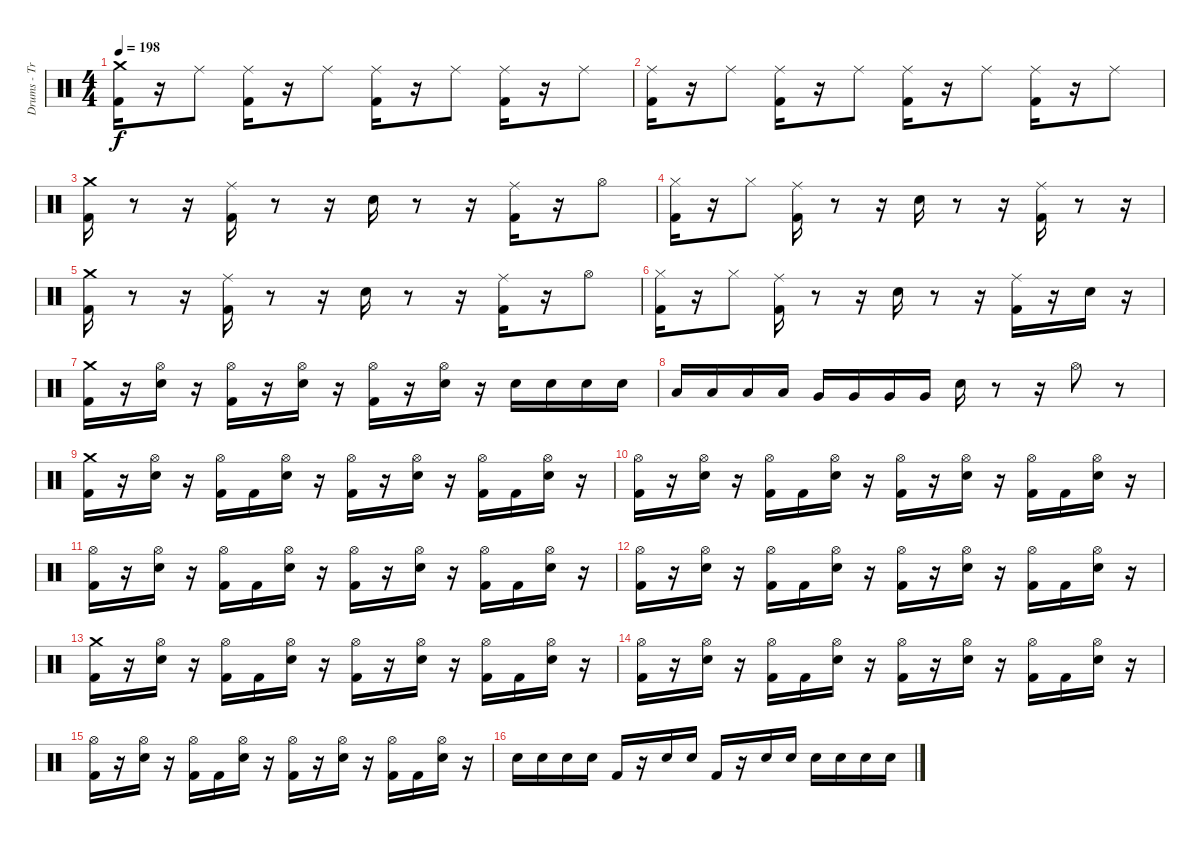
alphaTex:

\track ("Drums - Travis" "Drums - Tr") {instrument percussion}
\staff {score}
\articulation defaults
\ts (4 4)
\tempo 198
\clef neutral
\ks c
("Kick (hit) 2" "Crash medium (hit)").16{dy f} r.16 "Ride (middle)".8 ("Kick (hit) 2" "Ride (middle)").16 r.16 "Ride (middle)".8 ("Kick (hit) 2" "Ride (middle)").16 r.16 "Ride (middle)".8 ("Kick (hit) 2" "Ride (middle)").16 r.16 "Ride (middle)".8 |
("Kick (hit) 2" "Ride (middle)").16 r.16 "Ride (middle)".8 ("Kick (hit) 2" "Ride (middle)").16 r.16 "Ride (middle)".8 ("Kick (hit) 2" "Ride (middle)").16 r.16 "Ride (middle)".8 ("Kick (hit) 2" "Ride (middle)").16 r.16 "Ride (middle)".8 |
("Crash medium (hit)" "Kick (hit) 2").16 r.8 r.16 ("Ride (middle)" "Kick (hit) 2").16 r.8 r.16 "Electric Snare (hit)".16 r.8 r.16 ("Ride (middle)" "Kick (hit) 2").16 r.16 "Hi-Hat (open)".8 |
("Kick (hit) 2" "Hi-Hat (closed)").16 r.16 "Hi-Hat (closed)".8 ("Ride (middle)" "Kick (hit) 2").16 r.8 r.16 "Electric Snare (hit)".16 r.8 r.16 ("Ride (middle)" "Kick (hit) 2").16 r.8 r.16 |
("Crash medium (hit)" "Kick (hit) 2").16 r.8 r.16 ("Ride (middle)" "Kick (hit) 2").16 r.8 r.16 "Electric Snare (hit)".16 r.8 r.16 ("Ride (middle)" "Kick (hit) 2").16 r.16 "Hi-Hat (open)".8 |
("Kick (hit) 2" "Hi-Hat (closed)").16 r.16 "Hi-Hat (closed)".8 ("Ride (middle)" "Kick (hit) 2").16 r.8 r.16 "Electric Snare (hit)".16 r.8 r.16 ("Ride (middle)" "Kick (hit) 2").16 r.16 "Electric Snare (hit)".16 r.16 |
("Kick (hit) 2" "Crash medium (hit)").16 r.16 ("Electric Snare (hit)" "Hi-Hat (open)").16 r.16 ("Kick (hit) 2" "Hi-Hat (open)").16 r.16 ("Electric Snare (hit)" "Hi-Hat (open)").16 r.16 ("Kick (hit) 2" "Hi-Hat (open)").16 r.16 ("Electric Snare (hit)" "Hi-Hat (open)").16 r.16 "Electric Snare (hit)".16 "Electric Snare (hit)".16 "Electric Snare (hit)".16 "Electric Snare (hit)".16 |
"Low Tom (hit)".16 "Low Tom (hit)".16 "Low Tom (hit)".16 "Low Tom (hit)".16 "Very Low Tom (hit)".16 "Very Low Tom (hit)".16 "Very Low Tom (hit)".16 "Very Low Tom (hit)".16 "Electric Snare (hit)".16 r.8 r.16 "Hi-Hat (open)".8 r.8 |
("Kick (hit) 2" "Crash medium (hit)").16 r.16 ("Electric Snare (hit)" "Hi-Hat (open)").16 r.16 ("Kick (hit) 2" "Hi-Hat (open)").16 "Kick (hit) 2".16 ("Electric Snare (hit)" "Hi-Hat (open)").16 r.16 ("Kick (hit) 2" "Hi-Hat (open)").16 r.16 ("Electric Snare (hit)" "Hi-Hat (open)").16 r.16 ("Kick (hit) 2" "Hi-Hat (open)").16 "Kick (hit) 2".16 ("Electric Snare (hit)" "Hi-Hat (open)").16 r.16 |
("Kick (hit) 2" "Hi-Hat (open)").16 r.16 ("Electric Snare (hit)" "Hi-Hat (open)").16 r.16 ("Kick (hit) 2" "Hi-Hat (open)").16 "Kick (hit) 2".16 ("Electric Snare (hit)" "Hi-Hat (open)").16 r.16 ("Kick (hit) 2" "Hi-Hat (open)").16 r.16 ("Electric Snare (hit)" "Hi-Hat (open)").16 r.16 ("Kick (hit) 2" "Hi-Hat (open)").16 "Kick (hit) 2".16 ("Electric Snare (hit)" "Hi-Hat (open)").16 r.16 |
("Kick (hit) 2" "Hi-Hat (open)").16 r.16 ("Electric Snare (hit)" "Hi-Hat (open)").16 r.16 ("Kick (hit) 2" "Hi-Hat (open)").16 "Kick (hit) 2".16 ("Electric Snare (hit)" "Hi-Hat (open)").16 r.16 ("Kick (hit) 2" "Hi-Hat (open)").16 r.16 ("Electric Snare (hit)" "Hi-Hat (open)").16 r.16 ("Kick (hit) 2" "Hi-Hat (open)").16 "Kick (hit) 2".16 ("Electric Snare (hit)" "Hi-Hat (open)").16 r.16 |
("Kick (hit) 2" "Hi-Hat (open)").16 r.16 ("Electric Snare (hit)" "Hi-Hat (open)").16 r.16 ("Kick (hit) 2" "Hi-Hat (open)").16 "Kick (hit) 2".16 ("Electric Snare (hit)" "Hi-Hat (open)").16 r.16 ("Kick (hit) 2" "Hi-Hat (open)").16 r.16 ("Electric Snare (hit)" "Hi-Hat (open)").16 r.16 ("Kick (hit) 2" "Hi-Hat (open)").16 "Kick (hit) 2".16 ("Electric Snare (hit)" "Hi-Hat (open)").16 r.16 |
("Kick (hit) 2" "Crash medium (hit)").16 r.16 ("Electric Snare (hit)" "Hi-Hat (open)").16 r.16 ("Kick (hit) 2" "Hi-Hat (open)").16 "Kick (hit) 2".16 ("Electric Snare (hit)" "Hi-Hat (open)").16 r.16 ("Kick (hit) 2" "Hi-Hat (open)").16 r.16 ("Electric Snare (hit)" "Hi-Hat (open)").16 r.16 ("Kick (hit) 2" "Hi-Hat (open)").16 "Kick (hit) 2".16 ("Electric Snare (hit)" "Hi-Hat (open)").16 r.16 |
("Kick (hit) 2" "Hi-Hat (open)").16 r.16 ("Electric Snare (hit)" "Hi-Hat (open)").16 r.16 ("Kick (hit) 2" "Hi-Hat (open)").16 "Kick (hit) 2".16 ("Electric Snare (hit)" "Hi-Hat (open)").16 r.16 ("Kick (hit) 2" "Hi-Hat (open)").16 r.16 ("Electric Snare (hit)" "Hi-Hat (open)").16 r.16 ("Kick (hit) 2" "Hi-Hat (open)").16 "Kick (hit) 2".16 ("Electric Snare (hit)" "Hi-Hat (open)").16 r.16 |
("Kick (hit) 2" "Hi-Hat (open)").16 r.16 ("Electric Snare (hit)" "Hi-Hat (open)").16 r.16 ("Kick (hit) 2" "Hi-Hat (open)").16 "Kick (hit) 2".16 ("Electric Snare (hit)" "Hi-Hat (open)").16 r.16 ("Kick (hit) 2" "Hi-Hat (open)").16 r.16 ("Electric Snare (hit)" "Hi-Hat (open)").16 r.16 ("Kick (hit) 2" "Hi-Hat (open)").16 "Kick (hit) 2".16 ("Electric Snare (hit)" "Hi-Hat (open)").16 r.16 |
"Electric Snare (hit)".16 "Electric Snare (hit)".16 "Electric Snare (hit)".16 "Electric Snare (hit)".16 "Kick (hit) 2".16 r.16 "Electric Snare (hit)".16 "Electric Snare (hit)".16 "Kick (hit) 2".16 r.16 "Electric Snare (hit)".16 "Electric Snare (hit)".16 "Electric Snare (hit)".16 "Electric Snare (hit)".16 "Electric Snare (hit)".16 "Electric Snare (hit)".16
